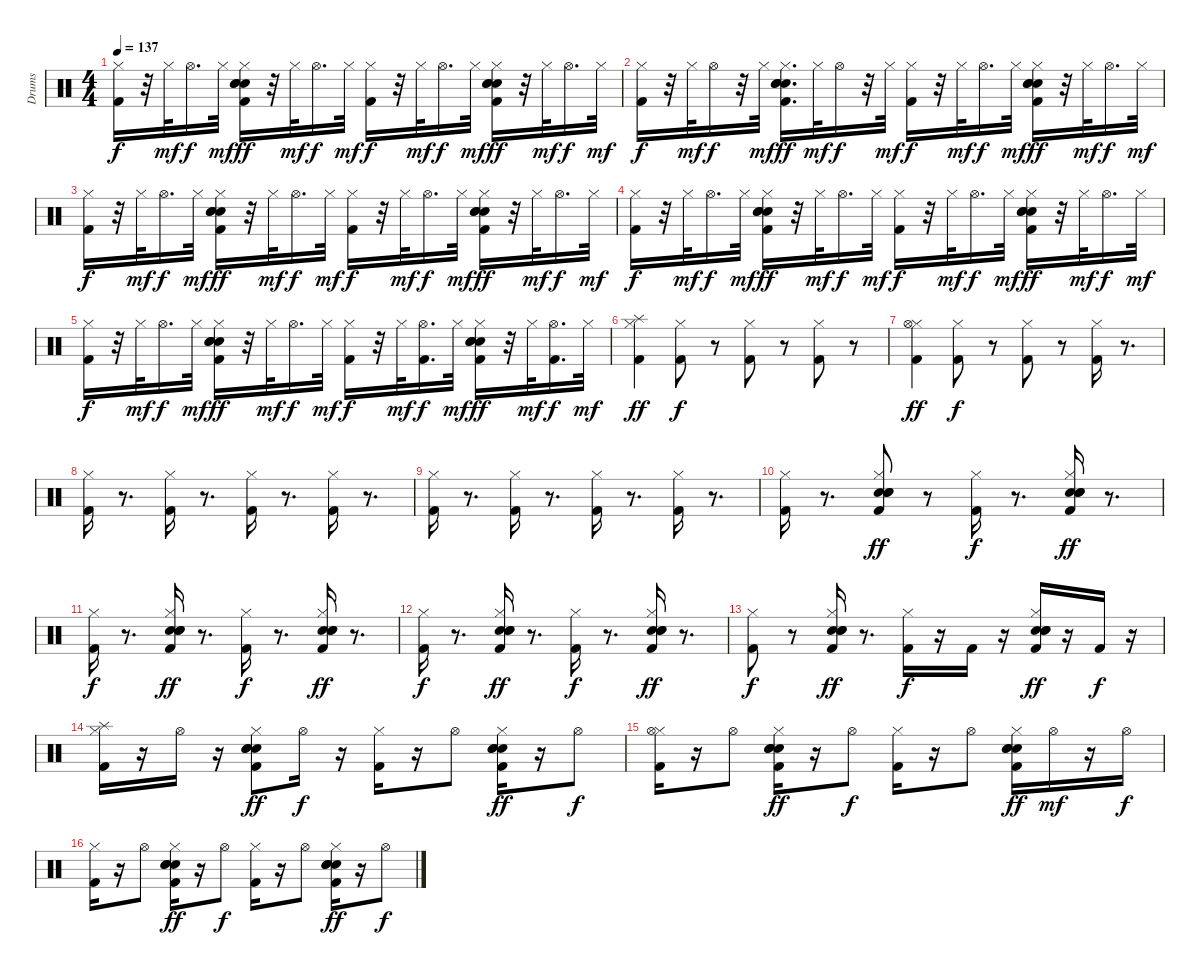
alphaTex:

\track ("Drums" "Drums") {instrument percussion}
\staff {score}
\articulation defaults
\ts (4 4)
\tempo 137
\clef neutral
\ks c
("Kick (hit) 2" "Hi-Hat (closed)").16{dy f} r.32 "Hi-Hat (closed)".32{dy mf} "Hi-Hat (open)".16{d dy f} "Hi-Hat (closed)".32{dy mf} ("Electric Snare (hit)" "Kick (hit) 2" "Hand Clap (hit)" "Hi-Hat (closed)" "Electric Snare (hit)").16{dy ff} r.32 "Hi-Hat (closed)".32{dy mf} "Hi-Hat (open)".16{d dy f} "Hi-Hat (closed)".32{dy mf} ("Kick (hit) 2" "Hi-Hat (closed)").16{dy f} r.32 "Hi-Hat (closed)".32{dy mf} "Hi-Hat (open)".16{d dy f} "Hi-Hat (closed)".32{dy mf} ("Electric Snare (hit)" "Kick (hit) 2" "Hand Clap (hit)" "Hi-Hat (closed)" "Electric Snare (hit)").16{dy ff} r.32 "Hi-Hat (closed)".32{dy mf} "Hi-Hat (open)".16{d dy f} "Hi-Hat (closed)".32{dy mf} |
("Kick (hit) 2" "Hi-Hat (closed)").16{dy f} r.32 "Hi-Hat (closed)".32{dy mf} "Hi-Hat (open)".16{dy f} r.32 "Hi-Hat (closed)".32{dy mf} ("Electric Snare (hit)" "Kick (hit) 2" "Hand Clap (hit)" "Hi-Hat (closed)" "Electric Snare (hit)").16{d dy ff} "Hi-Hat (closed)".32{dy mf} "Hi-Hat (open)".16{dy f} r.32 "Hi-Hat (closed)".32{dy mf} ("Kick (hit) 2" "Hi-Hat (closed)").16{dy f} r.32 "Hi-Hat (closed)".32{dy mf} "Hi-Hat (open)".16{d dy f} "Hi-Hat (closed)".32{dy mf} ("Electric Snare (hit)" "Kick (hit) 2" "Hand Clap (hit)" "Hi-Hat (closed)" "Electric Snare (hit)").16{dy ff} r.32 "Hi-Hat (closed)".32{dy mf} "Hi-Hat (open)".16{d dy f} "Hi-Hat (closed)".32{dy mf} |
("Kick (hit) 2" "Hi-Hat (closed)").16{dy f} r.32 "Hi-Hat (closed)".32{dy mf} "Hi-Hat (open)".16{d dy f} "Hi-Hat (closed)".32{dy mf} ("Electric Snare (hit)" "Kick (hit) 2" "Hand Clap (hit)" "Hi-Hat (closed)" "Electric Snare (hit)").16{dy ff} r.32 "Hi-Hat (closed)".32{dy mf} "Hi-Hat (open)".16{d dy f} "Hi-Hat (closed)".32{dy mf} ("Kick (hit) 2" "Hi-Hat (closed)").16{dy f} r.32 "Hi-Hat (closed)".32{dy mf} "Hi-Hat (open)".16{d dy f} "Hi-Hat (closed)".32{dy mf} ("Electric Snare (hit)" "Kick (hit) 2" "Hand Clap (hit)" "Hi-Hat (closed)" "Electric Snare (hit)").16{dy ff} r.32 "Hi-Hat (closed)".32{dy mf} "Hi-Hat (open)".16{d dy f} "Hi-Hat (closed)".32{dy mf} |
("Kick (hit) 2" "Hi-Hat (closed)").16{dy f} r.32 "Hi-Hat (closed)".32{dy mf} "Hi-Hat (open)".16{d dy f} "Hi-Hat (closed)".32{dy mf} ("Electric Snare (hit)" "Kick (hit) 2" "Hand Clap (hit)" "Hi-Hat (closed)" "Electric Snare (hit)").16{dy ff} r.32 "Hi-Hat (closed)".32{dy mf} "Hi-Hat (open)".16{d dy f} "Hi-Hat (closed)".32{dy mf} ("Kick (hit) 2" "Hi-Hat (closed)").16{dy f} r.32 "Hi-Hat (closed)".32{dy mf} "Hi-Hat (open)".16{d dy f} "Hi-Hat (closed)".32{dy mf} ("Electric Snare (hit)" "Kick (hit) 2" "Hand Clap (hit)" "Hi-Hat (closed)" "Electric Snare (hit)").16{dy ff} r.32 "Hi-Hat (closed)".32{dy mf} "Hi-Hat (open)".16{d dy f} "Hi-Hat (closed)".32{dy mf} |
("Kick (hit) 2" "Hi-Hat (closed)").16{dy f} r.32 "Hi-Hat (closed)".32{dy mf} "Hi-Hat (open)".16{d dy f} "Hi-Hat (closed)".32{dy mf} ("Electric Snare (hit)" "Kick (hit) 2" "Hand Clap (hit)" "Hi-Hat (closed)" "Electric Snare (hit)").16{dy ff} r.32 "Hi-Hat (closed)".32{dy mf} "Hi-Hat (open)".16{d dy f} "Hi-Hat (closed)".32{dy mf} ("Kick (hit) 2" "Hi-Hat (closed)").16{dy f} r.32 "Hi-Hat (closed)".32{dy mf} ("Kick (hit) 2" "Hi-Hat (open)").16{d dy f} "Hi-Hat (closed)".32{dy mf} ("Electric Snare (hit)" "Kick (hit) 2" "Hand Clap (hit)" "Hi-Hat (closed)" "Electric Snare (hit)").16{dy ff} r.32 "Hi-Hat (closed)".32{dy mf} ("Kick (hit) 2" "Hi-Hat (open)").16{d dy f} "Hi-Hat (closed)".32{dy mf} |
("Kick (hit) 2" "Hi-Hat (closed)" "Splash (hit)").4{dy ff} ("Kick (hit) 2" "Hi-Hat (closed)").8{dy f} r.8 ("Kick (hit) 2" "Hi-Hat (closed)").8 r.8 ("Kick (hit) 2" "Hi-Hat (closed)").8 r.8 |
("Kick (hit) 2" "Hi-Hat (closed)" "Hi-Hat (open)").4{dy ff} ("Kick (hit) 2" "Hi-Hat (closed)").8{dy f} r.8 ("Kick (hit) 2" "Hi-Hat (closed)").8 r.8 ("Kick (hit) 2" "Hi-Hat (closed)").16 r.8{d} |
("Kick (hit) 2" "Hi-Hat (closed)").16 r.8{d} ("Kick (hit) 2" "Hi-Hat (closed)").16 r.8{d} ("Kick (hit) 2" "Hi-Hat (closed)").16 r.8{d} ("Kick (hit) 2" "Hi-Hat (closed)").16 r.8{d} |
("Kick (hit) 2" "Hi-Hat (closed)").16 r.8{d} ("Kick (hit) 2" "Hi-Hat (closed)").16 r.8{d} ("Kick (hit) 2" "Hi-Hat (closed)").16 r.8{d} ("Kick (hit) 2" "Hi-Hat (closed)").16 r.8{d} |
("Kick (hit) 2" "Hi-Hat (closed)").16 r.8{d} ("Electric Snare (hit)" "Kick (hit) 2" "Hand Clap (hit)" "Hi-Hat (closed)" "Electric Snare (hit)").8{dy ff} r.8 ("Kick (hit) 2" "Hi-Hat (closed)").16{dy f} r.8{d} ("Electric Snare (hit)" "Kick (hit) 2" "Hand Clap (hit)" "Hi-Hat (closed)" "Electric Snare (hit)").16{dy ff} r.8{d} |
("Kick (hit) 2" "Hi-Hat (closed)").16{dy f} r.8{d} ("Electric Snare (hit)" "Kick (hit) 2" "Hand Clap (hit)" "Hi-Hat (closed)" "Electric Snare (hit)").16{dy ff} r.8{d} ("Kick (hit) 2" "Hi-Hat (closed)").16{dy f} r.8{d} ("Electric Snare (hit)" "Kick (hit) 2" "Hand Clap (hit)" "Hi-Hat (closed)" "Electric Snare (hit)").16{dy ff} r.8{d} |
("Kick (hit) 2" "Hi-Hat (closed)").16{dy f} r.8{d} ("Electric Snare (hit)" "Kick (hit) 2" "Hand Clap (hit)" "Hi-Hat (closed)" "Electric Snare (hit)").16{dy ff} r.8{d} ("Kick (hit) 2" "Hi-Hat (closed)").16{dy f} r.8{d} ("Electric Snare (hit)" "Kick (hit) 2" "Hand Clap (hit)" "Hi-Hat (closed)" "Electric Snare (hit)").16{dy ff} r.8{d} |
("Kick (hit) 2" "Hi-Hat (closed)").8{dy f} r.8 ("Electric Snare (hit)" "Kick (hit) 2" "Hand Clap (hit)" "Hi-Hat (closed)" "Electric Snare (hit)").16{dy ff} r.8{d} ("Kick (hit) 2" "Hi-Hat (closed)").16{dy f} r.16 "Kick (hit) 2".16 r.16 ("Electric Snare (hit)" "Kick (hit) 2" "Hand Clap (hit)" "Hi-Hat (closed)" "Electric Snare (hit)").16{dy ff} r.16 "Kick (hit) 2".16{dy f} r.16 |
("Kick (hit) 2" "Hi-Hat (closed)" "Splash (hit)").16 r.16 "Hi-Hat (open)".16 r.16 ("Electric Snare (hit)" "Kick (hit) 2" "Hand Clap (hit)" "Hi-Hat (closed)" "Electric Snare (hit)").8{dy ff} "Hi-Hat (open)".16{dy f} r.16 ("Kick (hit) 2" "Hi-Hat (closed)").16 r.16 "Hi-Hat (open)".8 ("Electric Snare (hit)" "Kick (hit) 2" "Hand Clap (hit)" "Hi-Hat (closed)" "Electric Snare (hit)").16{dy ff} r.16 "Hi-Hat (open)".8{dy f} |
("Kick (hit) 2" "Hi-Hat (closed)" "Hi-Hat (open)").16 r.16 "Hi-Hat (open)".8 ("Electric Snare (hit)" "Kick (hit) 2" "Hand Clap (hit)" "Hi-Hat (closed)" "Electric Snare (hit)").16{dy ff} r.16 "Hi-Hat (open)".8{dy f} ("Kick (hit) 2" "Hi-Hat (closed)").16 r.16 "Hi-Hat (open)".8 ("Electric Snare (hit)" "Kick (hit) 2" "Hand Clap (hit)" "Hi-Hat (closed)" "Electric Snare (hit)").16{dy ff} "Hi-Hat (open)".16{dy mf} r.16 "Hi-Hat (open)".16{dy f} |
("Kick (hit) 2" "Hi-Hat (closed)").16 r.16 "Hi-Hat (open)".8 ("Electric Snare (hit)" "Kick (hit) 2" "Hand Clap (hit)" "Hi-Hat (closed)" "Electric Snare (hit)").16{dy ff} r.16 "Hi-Hat (open)".8{dy f} ("Kick (hit) 2" "Hi-Hat (closed)").16 r.16 "Hi-Hat (open)".8 ("Electric Snare (hit)" "Kick (hit) 2" "Hand Clap (hit)" "Hi-Hat (closed)" "Electric Snare (hit)").16{dy ff} r.16 "Hi-Hat (open)".8{dy f}
